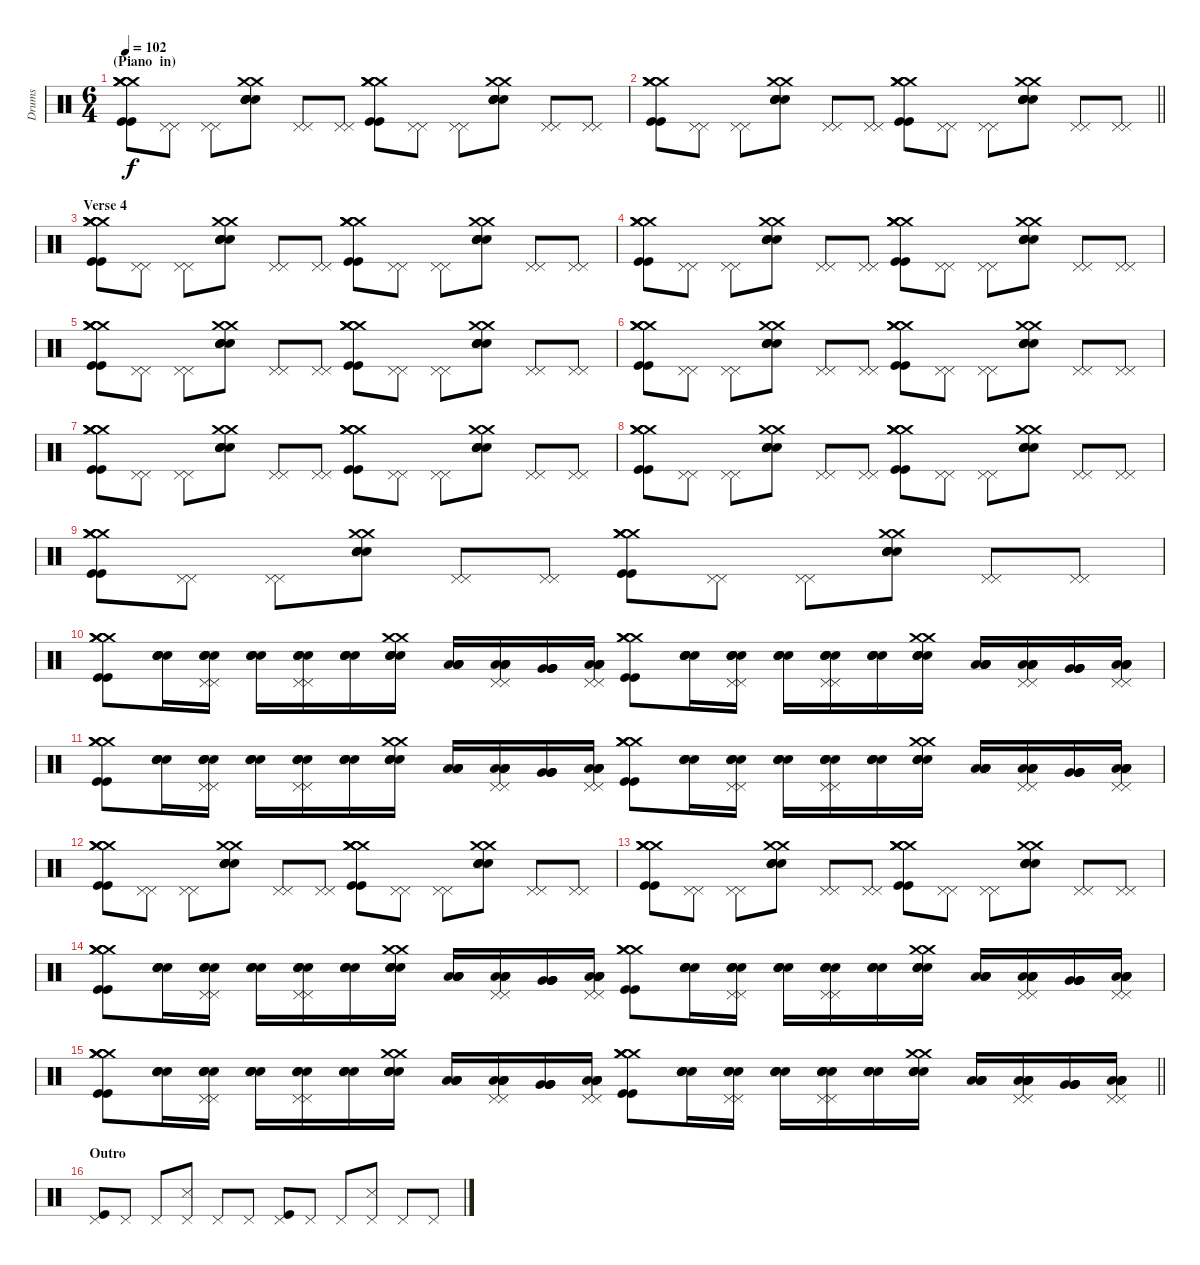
\track ("Drums" "Drums") {instrument percussion}
\staff {score}
\articulation defaults
\ts (6 4)
\section ("" "(Piano  in)")
\tempo 102
\clef neutral
\ks c
("Crash medium (hit)" "Crash medium (hit)" "Crash medium (hit)" "Crash medium (hit)" "Kick (hit)" "Kick (hit)").8{dy f} ("Pedal Hi-Hat (hit)" "Pedal Hi-Hat (hit)").8 ("Pedal Hi-Hat (hit)" "Pedal Hi-Hat (hit)").8 ("Crash medium (hit)" "Crash medium (hit)" "Electric Snare (hit)" "Electric Snare (hit)" "Electric Snare (hit)" "Electric Snare (hit)").8 ("Pedal Hi-Hat (hit)" "Pedal Hi-Hat (hit)").8 ("Pedal Hi-Hat (hit)" "Pedal Hi-Hat (hit)").8 ("Crash medium (hit)" "Crash medium (hit)" "Crash medium (hit)" "Crash medium (hit)" "Kick (hit)" "Kick (hit)").8 ("Pedal Hi-Hat (hit)" "Pedal Hi-Hat (hit)").8 ("Pedal Hi-Hat (hit)" "Pedal Hi-Hat (hit)").8 ("Crash medium (hit)" "Crash medium (hit)" "Electric Snare (hit)" "Electric Snare (hit)" "Electric Snare (hit)" "Electric Snare (hit)").8 ("Pedal Hi-Hat (hit)" "Pedal Hi-Hat (hit)").8 ("Pedal Hi-Hat (hit)" "Pedal Hi-Hat (hit)").8 |
\barLineRight lightlight
("Crash medium (hit)" "Crash medium (hit)" "Crash medium (hit)" "Crash medium (hit)" "Kick (hit)" "Kick (hit)").8 ("Pedal Hi-Hat (hit)" "Pedal Hi-Hat (hit)").8 ("Pedal Hi-Hat (hit)" "Pedal Hi-Hat (hit)").8 ("Crash medium (hit)" "Crash medium (hit)" "Electric Snare (hit)" "Electric Snare (hit)" "Electric Snare (hit)" "Electric Snare (hit)").8 ("Pedal Hi-Hat (hit)" "Pedal Hi-Hat (hit)").8 ("Pedal Hi-Hat (hit)" "Pedal Hi-Hat (hit)").8 ("Crash medium (hit)" "Crash medium (hit)" "Crash medium (hit)" "Crash medium (hit)" "Kick (hit)" "Kick (hit)").8 ("Pedal Hi-Hat (hit)" "Pedal Hi-Hat (hit)").8 ("Pedal Hi-Hat (hit)" "Pedal Hi-Hat (hit)").8 ("Crash medium (hit)" "Crash medium (hit)" "Electric Snare (hit)" "Electric Snare (hit)" "Electric Snare (hit)" "Electric Snare (hit)").8 ("Pedal Hi-Hat (hit)" "Pedal Hi-Hat (hit)").8 ("Pedal Hi-Hat (hit)" "Pedal Hi-Hat (hit)").8 |
\section ("" "Verse 4")
("Crash medium (hit)" "Crash medium (hit)" "Crash medium (hit)" "Crash medium (hit)" "Kick (hit)" "Kick (hit)").8 ("Pedal Hi-Hat (hit)" "Pedal Hi-Hat (hit)").8 ("Pedal Hi-Hat (hit)" "Pedal Hi-Hat (hit)").8 ("Crash medium (hit)" "Crash medium (hit)" "Electric Snare (hit)" "Electric Snare (hit)" "Electric Snare (hit)" "Electric Snare (hit)").8 ("Pedal Hi-Hat (hit)" "Pedal Hi-Hat (hit)").8 ("Pedal Hi-Hat (hit)" "Pedal Hi-Hat (hit)").8 ("Crash medium (hit)" "Crash medium (hit)" "Crash medium (hit)" "Crash medium (hit)" "Kick (hit)" "Kick (hit)").8 ("Pedal Hi-Hat (hit)" "Pedal Hi-Hat (hit)").8 ("Pedal Hi-Hat (hit)" "Pedal Hi-Hat (hit)").8 ("Crash medium (hit)" "Crash medium (hit)" "Electric Snare (hit)" "Electric Snare (hit)" "Electric Snare (hit)" "Electric Snare (hit)").8 ("Pedal Hi-Hat (hit)" "Pedal Hi-Hat (hit)").8 ("Pedal Hi-Hat (hit)" "Pedal Hi-Hat (hit)").8 |
("Crash medium (hit)" "Crash medium (hit)" "Crash medium (hit)" "Crash medium (hit)" "Kick (hit)" "Kick (hit)").8 ("Pedal Hi-Hat (hit)" "Pedal Hi-Hat (hit)").8 ("Pedal Hi-Hat (hit)" "Pedal Hi-Hat (hit)").8 ("Crash medium (hit)" "Crash medium (hit)" "Electric Snare (hit)" "Electric Snare (hit)" "Electric Snare (hit)" "Electric Snare (hit)").8 ("Pedal Hi-Hat (hit)" "Pedal Hi-Hat (hit)").8 ("Pedal Hi-Hat (hit)" "Pedal Hi-Hat (hit)").8 ("Crash medium (hit)" "Crash medium (hit)" "Crash medium (hit)" "Crash medium (hit)" "Kick (hit)" "Kick (hit)").8 ("Pedal Hi-Hat (hit)" "Pedal Hi-Hat (hit)").8 ("Pedal Hi-Hat (hit)" "Pedal Hi-Hat (hit)").8 ("Crash medium (hit)" "Crash medium (hit)" "Electric Snare (hit)" "Electric Snare (hit)" "Electric Snare (hit)" "Electric Snare (hit)").8 ("Pedal Hi-Hat (hit)" "Pedal Hi-Hat (hit)").8 ("Pedal Hi-Hat (hit)" "Pedal Hi-Hat (hit)").8 |
("Crash medium (hit)" "Crash medium (hit)" "Crash medium (hit)" "Crash medium (hit)" "Kick (hit)" "Kick (hit)").8 ("Pedal Hi-Hat (hit)" "Pedal Hi-Hat (hit)").8 ("Pedal Hi-Hat (hit)" "Pedal Hi-Hat (hit)").8 ("Crash medium (hit)" "Crash medium (hit)" "Electric Snare (hit)" "Electric Snare (hit)" "Electric Snare (hit)" "Electric Snare (hit)").8 ("Pedal Hi-Hat (hit)" "Pedal Hi-Hat (hit)").8 ("Pedal Hi-Hat (hit)" "Pedal Hi-Hat (hit)").8 ("Crash medium (hit)" "Crash medium (hit)" "Crash medium (hit)" "Crash medium (hit)" "Kick (hit)" "Kick (hit)").8 ("Pedal Hi-Hat (hit)" "Pedal Hi-Hat (hit)").8 ("Pedal Hi-Hat (hit)" "Pedal Hi-Hat (hit)").8 ("Crash medium (hit)" "Crash medium (hit)" "Electric Snare (hit)" "Electric Snare (hit)" "Electric Snare (hit)" "Electric Snare (hit)").8 ("Pedal Hi-Hat (hit)" "Pedal Hi-Hat (hit)").8 ("Pedal Hi-Hat (hit)" "Pedal Hi-Hat (hit)").8 |
("Crash medium (hit)" "Crash medium (hit)" "Crash medium (hit)" "Crash medium (hit)" "Kick (hit)" "Kick (hit)").8 ("Pedal Hi-Hat (hit)" "Pedal Hi-Hat (hit)").8 ("Pedal Hi-Hat (hit)" "Pedal Hi-Hat (hit)").8 ("Crash medium (hit)" "Crash medium (hit)" "Electric Snare (hit)" "Electric Snare (hit)" "Electric Snare (hit)" "Electric Snare (hit)").8 ("Pedal Hi-Hat (hit)" "Pedal Hi-Hat (hit)").8 ("Pedal Hi-Hat (hit)" "Pedal Hi-Hat (hit)").8 ("Crash medium (hit)" "Crash medium (hit)" "Crash medium (hit)" "Crash medium (hit)" "Kick (hit)" "Kick (hit)").8 ("Pedal Hi-Hat (hit)" "Pedal Hi-Hat (hit)").8 ("Pedal Hi-Hat (hit)" "Pedal Hi-Hat (hit)").8 ("Crash medium (hit)" "Crash medium (hit)" "Electric Snare (hit)" "Electric Snare (hit)" "Electric Snare (hit)" "Electric Snare (hit)").8 ("Pedal Hi-Hat (hit)" "Pedal Hi-Hat (hit)").8 ("Pedal Hi-Hat (hit)" "Pedal Hi-Hat (hit)").8 |
("Crash medium (hit)" "Crash medium (hit)" "Crash medium (hit)" "Crash medium (hit)" "Kick (hit)" "Kick (hit)").8 ("Pedal Hi-Hat (hit)" "Pedal Hi-Hat (hit)").8 ("Pedal Hi-Hat (hit)" "Pedal Hi-Hat (hit)").8 ("Crash medium (hit)" "Crash medium (hit)" "Electric Snare (hit)" "Electric Snare (hit)" "Electric Snare (hit)" "Electric Snare (hit)").8 ("Pedal Hi-Hat (hit)" "Pedal Hi-Hat (hit)").8 ("Pedal Hi-Hat (hit)" "Pedal Hi-Hat (hit)").8 ("Crash medium (hit)" "Crash medium (hit)" "Crash medium (hit)" "Crash medium (hit)" "Kick (hit)" "Kick (hit)").8 ("Pedal Hi-Hat (hit)" "Pedal Hi-Hat (hit)").8 ("Pedal Hi-Hat (hit)" "Pedal Hi-Hat (hit)").8 ("Crash medium (hit)" "Crash medium (hit)" "Electric Snare (hit)" "Electric Snare (hit)" "Electric Snare (hit)" "Electric Snare (hit)").8 ("Pedal Hi-Hat (hit)" "Pedal Hi-Hat (hit)").8 ("Pedal Hi-Hat (hit)" "Pedal Hi-Hat (hit)").8 |
("Crash medium (hit)" "Crash medium (hit)" "Crash medium (hit)" "Crash medium (hit)" "Kick (hit)" "Kick (hit)").8 ("Pedal Hi-Hat (hit)" "Pedal Hi-Hat (hit)").8 ("Pedal Hi-Hat (hit)" "Pedal Hi-Hat (hit)").8 ("Crash medium (hit)" "Crash medium (hit)" "Electric Snare (hit)" "Electric Snare (hit)" "Electric Snare (hit)" "Electric Snare (hit)").8 ("Pedal Hi-Hat (hit)" "Pedal Hi-Hat (hit)").8 ("Pedal Hi-Hat (hit)" "Pedal Hi-Hat (hit)").8 ("Crash medium (hit)" "Crash medium (hit)" "Crash medium (hit)" "Crash medium (hit)" "Kick (hit)" "Kick (hit)").8 ("Pedal Hi-Hat (hit)" "Pedal Hi-Hat (hit)").8 ("Pedal Hi-Hat (hit)" "Pedal Hi-Hat (hit)").8 ("Crash medium (hit)" "Crash medium (hit)" "Electric Snare (hit)" "Electric Snare (hit)" "Electric Snare (hit)" "Electric Snare (hit)").8 ("Pedal Hi-Hat (hit)" "Pedal Hi-Hat (hit)").8 ("Pedal Hi-Hat (hit)" "Pedal Hi-Hat (hit)").8 |
("Crash medium (hit)" "Crash medium (hit)" "Crash medium (hit)" "Crash medium (hit)" "Kick (hit)" "Kick (hit)").8 ("Pedal Hi-Hat (hit)" "Pedal Hi-Hat (hit)").8 ("Pedal Hi-Hat (hit)" "Pedal Hi-Hat (hit)").8 ("Crash medium (hit)" "Crash medium (hit)" "Electric Snare (hit)" "Electric Snare (hit)" "Electric Snare (hit)" "Electric Snare (hit)").8 ("Pedal Hi-Hat (hit)" "Pedal Hi-Hat (hit)").8 ("Pedal Hi-Hat (hit)" "Pedal Hi-Hat (hit)").8 ("Crash medium (hit)" "Crash medium (hit)" "Crash medium (hit)" "Crash medium (hit)" "Kick (hit)" "Kick (hit)").8 ("Pedal Hi-Hat (hit)" "Pedal Hi-Hat (hit)").8 ("Pedal Hi-Hat (hit)" "Pedal Hi-Hat (hit)").8 ("Crash medium (hit)" "Crash medium (hit)" "Electric Snare (hit)" "Electric Snare (hit)" "Electric Snare (hit)" "Electric Snare (hit)").8 ("Pedal Hi-Hat (hit)" "Pedal Hi-Hat (hit)").8 ("Pedal Hi-Hat (hit)" "Pedal Hi-Hat (hit)").8 |
("Crash medium (hit)" "Crash medium (hit)" "Crash medium (hit)" "Crash medium (hit)" "Kick (hit)" "Kick (hit)").8 ("Electric Snare (hit)" "Electric Snare (hit)" "Electric Snare (hit)" "Electric Snare (hit)").16 ("Pedal Hi-Hat (hit)" "Pedal Hi-Hat (hit)" "Electric Snare (hit)" "Electric Snare (hit)" "Electric Snare (hit)" "Electric Snare (hit)").16 ("Electric Snare (hit)" "Electric Snare (hit)" "Electric Snare (hit)" "Electric Snare (hit)").16 ("Pedal Hi-Hat (hit)" "Pedal Hi-Hat (hit)" "Electric Snare (hit)" "Electric Snare (hit)" "Electric Snare (hit)" "Electric Snare (hit)").16 ("Electric Snare (hit)" "Electric Snare (hit)" "Electric Snare (hit)" "Electric Snare (hit)").16 ("Crash medium (hit)" "Crash medium (hit)" "Electric Snare (hit)" "Electric Snare (hit)" "Electric Snare (hit)" "Electric Snare (hit)").16 ("Low Tom (hit)" "Low Tom (hit)" "Low Tom (hit)" "Low Tom (hit)").16 ("Pedal Hi-Hat (hit)" "Pedal Hi-Hat (hit)" "Low Tom (hit)" "Low Tom (hit)" "Low Tom (hit)" "Low Tom (hit)").16 ("Very Low Tom (hit)" "Very Low Tom (hit)" "Very Low Tom (hit)" "Very Low Tom (hit)").16 ("Pedal Hi-Hat (hit)" "Pedal Hi-Hat (hit)" "Low Floor Tom (hit)" "Low Floor Tom (hit)" "Low Floor Tom (hit)" "Low Floor Tom (hit)").16 ("Crash medium (hit)" "Crash medium (hit)" "Crash medium (hit)" "Crash medium (hit)" "Kick (hit)" "Kick (hit)").8 ("Electric Snare (hit)" "Electric Snare (hit)" "Electric Snare (hit)" "Electric Snare (hit)").16 ("Pedal Hi-Hat (hit)" "Pedal Hi-Hat (hit)" "Electric Snare (hit)" "Electric Snare (hit)" "Electric Snare (hit)" "Electric Snare (hit)").16 ("Electric Snare (hit)" "Electric Snare (hit)" "Electric Snare (hit)" "Electric Snare (hit)").16 ("Pedal Hi-Hat (hit)" "Pedal Hi-Hat (hit)" "Electric Snare (hit)" "Electric Snare (hit)" "Electric Snare (hit)" "Electric Snare (hit)").16 ("Electric Snare (hit)" "Electric Snare (hit)" "Electric Snare (hit)" "Electric Snare (hit)").16 ("Crash medium (hit)" "Crash medium (hit)" "Electric Snare (hit)" "Electric Snare (hit)" "Electric Snare (hit)" "Electric Snare (hit)").16 ("Low Tom (hit)" "Low Tom (hit)" "Low Tom (hit)" "Low Tom (hit)").16 ("Pedal Hi-Hat (hit)" "Pedal Hi-Hat (hit)" "Low Tom (hit)" "Low Tom (hit)" "Low Tom (hit)" "Low Tom (hit)").16 ("Very Low Tom (hit)" "Very Low Tom (hit)" "Very Low Tom (hit)" "Very Low Tom (hit)").16 ("Pedal Hi-Hat (hit)" "Pedal Hi-Hat (hit)" "Low Floor Tom (hit)" "Low Floor Tom (hit)" "Low Floor Tom (hit)" "Low Floor Tom (hit)").16 |
("Crash medium (hit)" "Crash medium (hit)" "Crash medium (hit)" "Crash medium (hit)" "Kick (hit)" "Kick (hit)").8 ("Electric Snare (hit)" "Electric Snare (hit)" "Electric Snare (hit)" "Electric Snare (hit)").16 ("Pedal Hi-Hat (hit)" "Pedal Hi-Hat (hit)" "Electric Snare (hit)" "Electric Snare (hit)" "Electric Snare (hit)" "Electric Snare (hit)").16 ("Electric Snare (hit)" "Electric Snare (hit)" "Electric Snare (hit)" "Electric Snare (hit)").16 ("Pedal Hi-Hat (hit)" "Pedal Hi-Hat (hit)" "Electric Snare (hit)" "Electric Snare (hit)" "Electric Snare (hit)" "Electric Snare (hit)").16 ("Electric Snare (hit)" "Electric Snare (hit)" "Electric Snare (hit)" "Electric Snare (hit)").16 ("Crash medium (hit)" "Crash medium (hit)" "Electric Snare (hit)" "Electric Snare (hit)" "Electric Snare (hit)" "Electric Snare (hit)").16 ("Low Tom (hit)" "Low Tom (hit)" "Low Tom (hit)" "Low Tom (hit)").16 ("Pedal Hi-Hat (hit)" "Pedal Hi-Hat (hit)" "Low Tom (hit)" "Low Tom (hit)" "Low Tom (hit)" "Low Tom (hit)").16 ("Very Low Tom (hit)" "Very Low Tom (hit)" "Very Low Tom (hit)" "Very Low Tom (hit)").16 ("Pedal Hi-Hat (hit)" "Pedal Hi-Hat (hit)" "Low Floor Tom (hit)" "Low Floor Tom (hit)" "Low Floor Tom (hit)" "Low Floor Tom (hit)").16 ("Crash medium (hit)" "Crash medium (hit)" "Crash medium (hit)" "Crash medium (hit)" "Kick (hit)" "Kick (hit)").8 ("Electric Snare (hit)" "Electric Snare (hit)" "Electric Snare (hit)" "Electric Snare (hit)").16 ("Pedal Hi-Hat (hit)" "Pedal Hi-Hat (hit)" "Electric Snare (hit)" "Electric Snare (hit)" "Electric Snare (hit)" "Electric Snare (hit)").16 ("Electric Snare (hit)" "Electric Snare (hit)" "Electric Snare (hit)" "Electric Snare (hit)").16 ("Pedal Hi-Hat (hit)" "Pedal Hi-Hat (hit)" "Electric Snare (hit)" "Electric Snare (hit)" "Electric Snare (hit)" "Electric Snare (hit)").16 ("Electric Snare (hit)" "Electric Snare (hit)" "Electric Snare (hit)" "Electric Snare (hit)").16 ("Crash medium (hit)" "Crash medium (hit)" "Electric Snare (hit)" "Electric Snare (hit)" "Electric Snare (hit)" "Electric Snare (hit)").16 ("Low Tom (hit)" "Low Tom (hit)" "Low Tom (hit)" "Low Tom (hit)").16 ("Pedal Hi-Hat (hit)" "Pedal Hi-Hat (hit)" "Low Tom (hit)" "Low Tom (hit)" "Low Tom (hit)" "Low Tom (hit)").16 ("Very Low Tom (hit)" "Very Low Tom (hit)" "Very Low Tom (hit)" "Very Low Tom (hit)").16 ("Pedal Hi-Hat (hit)" "Pedal Hi-Hat (hit)" "Low Floor Tom (hit)" "Low Floor Tom (hit)" "Low Floor Tom (hit)" "Low Floor Tom (hit)").16 |
("Crash medium (hit)" "Crash medium (hit)" "Crash medium (hit)" "Crash medium (hit)" "Kick (hit)" "Kick (hit)").8 ("Pedal Hi-Hat (hit)" "Pedal Hi-Hat (hit)").8 ("Pedal Hi-Hat (hit)" "Pedal Hi-Hat (hit)").8 ("Crash medium (hit)" "Crash medium (hit)" "Electric Snare (hit)" "Electric Snare (hit)" "Electric Snare (hit)" "Electric Snare (hit)").8 ("Pedal Hi-Hat (hit)" "Pedal Hi-Hat (hit)").8 ("Pedal Hi-Hat (hit)" "Pedal Hi-Hat (hit)").8 ("Crash medium (hit)" "Crash medium (hit)" "Crash medium (hit)" "Crash medium (hit)" "Kick (hit)" "Kick (hit)").8 ("Pedal Hi-Hat (hit)" "Pedal Hi-Hat (hit)").8 ("Pedal Hi-Hat (hit)" "Pedal Hi-Hat (hit)").8 ("Crash medium (hit)" "Crash medium (hit)" "Electric Snare (hit)" "Electric Snare (hit)" "Electric Snare (hit)" "Electric Snare (hit)").8 ("Pedal Hi-Hat (hit)" "Pedal Hi-Hat (hit)").8 ("Pedal Hi-Hat (hit)" "Pedal Hi-Hat (hit)").8 |
("Crash medium (hit)" "Crash medium (hit)" "Crash medium (hit)" "Crash medium (hit)" "Kick (hit)" "Kick (hit)").8 ("Pedal Hi-Hat (hit)" "Pedal Hi-Hat (hit)").8 ("Pedal Hi-Hat (hit)" "Pedal Hi-Hat (hit)").8 ("Crash medium (hit)" "Crash medium (hit)" "Electric Snare (hit)" "Electric Snare (hit)" "Electric Snare (hit)" "Electric Snare (hit)").8 ("Pedal Hi-Hat (hit)" "Pedal Hi-Hat (hit)").8 ("Pedal Hi-Hat (hit)" "Pedal Hi-Hat (hit)").8 ("Crash medium (hit)" "Crash medium (hit)" "Crash medium (hit)" "Crash medium (hit)" "Kick (hit)" "Kick (hit)").8 ("Pedal Hi-Hat (hit)" "Pedal Hi-Hat (hit)").8 ("Pedal Hi-Hat (hit)" "Pedal Hi-Hat (hit)").8 ("Crash medium (hit)" "Crash medium (hit)" "Electric Snare (hit)" "Electric Snare (hit)" "Electric Snare (hit)" "Electric Snare (hit)").8 ("Pedal Hi-Hat (hit)" "Pedal Hi-Hat (hit)").8 ("Pedal Hi-Hat (hit)" "Pedal Hi-Hat (hit)").8 |
("Crash medium (hit)" "Crash medium (hit)" "Crash medium (hit)" "Crash medium (hit)" "Kick (hit)" "Kick (hit)").8 ("Electric Snare (hit)" "Electric Snare (hit)" "Electric Snare (hit)" "Electric Snare (hit)").16 ("Pedal Hi-Hat (hit)" "Pedal Hi-Hat (hit)" "Electric Snare (hit)" "Electric Snare (hit)" "Electric Snare (hit)" "Electric Snare (hit)").16 ("Electric Snare (hit)" "Electric Snare (hit)" "Electric Snare (hit)" "Electric Snare (hit)").16 ("Pedal Hi-Hat (hit)" "Pedal Hi-Hat (hit)" "Electric Snare (hit)" "Electric Snare (hit)" "Electric Snare (hit)" "Electric Snare (hit)").16 ("Electric Snare (hit)" "Electric Snare (hit)" "Electric Snare (hit)" "Electric Snare (hit)").16 ("Crash medium (hit)" "Crash medium (hit)" "Electric Snare (hit)" "Electric Snare (hit)" "Electric Snare (hit)" "Electric Snare (hit)").16 ("Low Tom (hit)" "Low Tom (hit)" "Low Tom (hit)" "Low Tom (hit)").16 ("Pedal Hi-Hat (hit)" "Pedal Hi-Hat (hit)" "Low Tom (hit)" "Low Tom (hit)" "Low Tom (hit)" "Low Tom (hit)").16 ("Very Low Tom (hit)" "Very Low Tom (hit)" "Very Low Tom (hit)" "Very Low Tom (hit)").16 ("Pedal Hi-Hat (hit)" "Pedal Hi-Hat (hit)" "Low Floor Tom (hit)" "Low Floor Tom (hit)" "Low Floor Tom (hit)" "Low Floor Tom (hit)").16 ("Crash medium (hit)" "Crash medium (hit)" "Crash medium (hit)" "Crash medium (hit)" "Kick (hit)" "Kick (hit)").8 ("Electric Snare (hit)" "Electric Snare (hit)" "Electric Snare (hit)" "Electric Snare (hit)").16 ("Pedal Hi-Hat (hit)" "Pedal Hi-Hat (hit)" "Electric Snare (hit)" "Electric Snare (hit)" "Electric Snare (hit)" "Electric Snare (hit)").16 ("Electric Snare (hit)" "Electric Snare (hit)" "Electric Snare (hit)" "Electric Snare (hit)").16 ("Pedal Hi-Hat (hit)" "Pedal Hi-Hat (hit)" "Electric Snare (hit)" "Electric Snare (hit)" "Electric Snare (hit)" "Electric Snare (hit)").16 ("Electric Snare (hit)" "Electric Snare (hit)" "Electric Snare (hit)" "Electric Snare (hit)").16 ("Crash medium (hit)" "Crash medium (hit)" "Electric Snare (hit)" "Electric Snare (hit)" "Electric Snare (hit)" "Electric Snare (hit)").16 ("Low Tom (hit)" "Low Tom (hit)" "Low Tom (hit)" "Low Tom (hit)").16 ("Pedal Hi-Hat (hit)" "Pedal Hi-Hat (hit)" "Low Tom (hit)" "Low Tom (hit)" "Low Tom (hit)" "Low Tom (hit)").16 ("Very Low Tom (hit)" "Very Low Tom (hit)" "Very Low Tom (hit)" "Very Low Tom (hit)").16 ("Pedal Hi-Hat (hit)" "Pedal Hi-Hat (hit)" "Low Floor Tom (hit)" "Low Floor Tom (hit)" "Low Floor Tom (hit)" "Low Floor Tom (hit)").16 |
\barLineRight lightlight
("Crash medium (hit)" "Crash medium (hit)" "Crash medium (hit)" "Crash medium (hit)" "Kick (hit)" "Kick (hit)").8 ("Electric Snare (hit)" "Electric Snare (hit)" "Electric Snare (hit)" "Electric Snare (hit)").16 ("Pedal Hi-Hat (hit)" "Pedal Hi-Hat (hit)" "Electric Snare (hit)" "Electric Snare (hit)" "Electric Snare (hit)" "Electric Snare (hit)").16 ("Electric Snare (hit)" "Electric Snare (hit)" "Electric Snare (hit)" "Electric Snare (hit)").16 ("Pedal Hi-Hat (hit)" "Pedal Hi-Hat (hit)" "Electric Snare (hit)" "Electric Snare (hit)" "Electric Snare (hit)" "Electric Snare (hit)").16 ("Electric Snare (hit)" "Electric Snare (hit)" "Electric Snare (hit)" "Electric Snare (hit)").16 ("Crash medium (hit)" "Crash medium (hit)" "Electric Snare (hit)" "Electric Snare (hit)" "Electric Snare (hit)" "Electric Snare (hit)").16 ("Low Tom (hit)" "Low Tom (hit)" "Low Tom (hit)" "Low Tom (hit)").16 ("Pedal Hi-Hat (hit)" "Pedal Hi-Hat (hit)" "Low Tom (hit)" "Low Tom (hit)" "Low Tom (hit)" "Low Tom (hit)").16 ("Very Low Tom (hit)" "Very Low Tom (hit)" "Very Low Tom (hit)" "Very Low Tom (hit)").16 ("Pedal Hi-Hat (hit)" "Pedal Hi-Hat (hit)" "Low Floor Tom (hit)" "Low Floor Tom (hit)" "Low Floor Tom (hit)" "Low Floor Tom (hit)").16 ("Crash medium (hit)" "Crash medium (hit)" "Crash medium (hit)" "Crash medium (hit)" "Kick (hit)" "Kick (hit)").8 ("Electric Snare (hit)" "Electric Snare (hit)" "Electric Snare (hit)" "Electric Snare (hit)").16 ("Pedal Hi-Hat (hit)" "Pedal Hi-Hat (hit)" "Electric Snare (hit)" "Electric Snare (hit)" "Electric Snare (hit)" "Electric Snare (hit)").16 ("Electric Snare (hit)" "Electric Snare (hit)" "Electric Snare (hit)" "Electric Snare (hit)").16 ("Pedal Hi-Hat (hit)" "Pedal Hi-Hat (hit)" "Electric Snare (hit)" "Electric Snare (hit)" "Electric Snare (hit)" "Electric Snare (hit)").16 ("Electric Snare (hit)" "Electric Snare (hit)" "Electric Snare (hit)" "Electric Snare (hit)").16 ("Crash medium (hit)" "Crash medium (hit)" "Electric Snare (hit)" "Electric Snare (hit)" "Electric Snare (hit)" "Electric Snare (hit)").16 ("Low Tom (hit)" "Low Tom (hit)" "Low Tom (hit)" "Low Tom (hit)").16 ("Pedal Hi-Hat (hit)" "Pedal Hi-Hat (hit)" "Low Tom (hit)" "Low Tom (hit)" "Low Tom (hit)" "Low Tom (hit)").16 ("Very Low Tom (hit)" "Very Low Tom (hit)" "Very Low Tom (hit)" "Very Low Tom (hit)").16 ("Pedal Hi-Hat (hit)" "Pedal Hi-Hat (hit)" "Low Floor Tom (hit)" "Low Floor Tom (hit)" "Low Floor Tom (hit)" "Low Floor Tom (hit)").16 |
\section ("" "Outro")
("Pedal Hi-Hat (hit)" "Kick (hit)").8 "Pedal Hi-Hat (hit)".8 "Pedal Hi-Hat (hit)".8 ("Pedal Hi-Hat (hit)" "Snare (side stick) 3").8 "Pedal Hi-Hat (hit)".8 "Pedal Hi-Hat (hit)".8 ("Pedal Hi-Hat (hit)" "Kick (hit)").8 "Pedal Hi-Hat (hit)".8 "Pedal Hi-Hat (hit)".8 ("Pedal Hi-Hat (hit)" "Snare (side stick) 3").8 "Pedal Hi-Hat (hit)".8 "Pedal Hi-Hat (hit)".8
